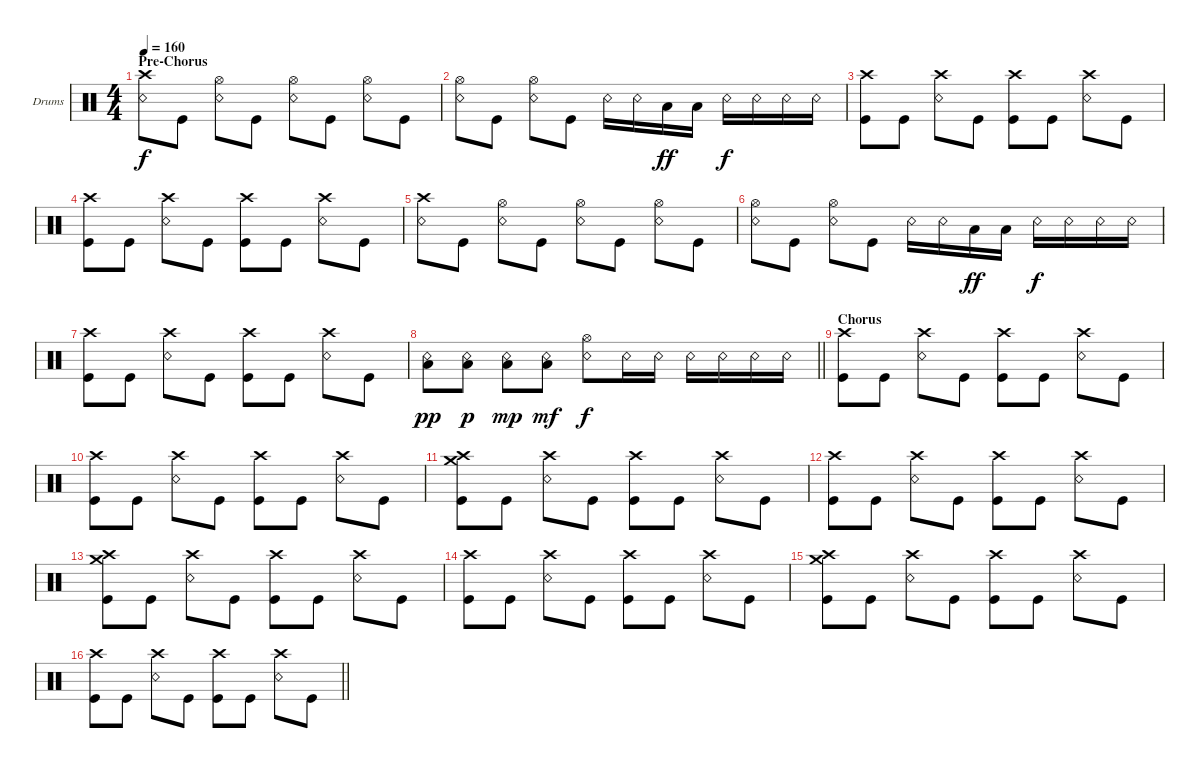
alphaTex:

\bracketExtendMode groupsimilarinstruments
\firstSystemTrackNameOrientation horizontal
\otherSystemsTrackNameOrientation horizontal
\track ("Drums" "Drums") {instrument percussion}
\staff {score}
\articulation defaults
\ts (4 4)
\section ("" "Pre-Chorus")
\tempo 160
\clef neutral
\ks c
("Snare (rim shot)" "Crash high (hit)").8{dy f} "Kick (hit)".8 ("Hi-Hat (open)" "Snare (rim shot)").8 "Kick (hit)".8 ("Hi-Hat (open)" "Snare (rim shot)").8 "Kick (hit)".8 ("Hi-Hat (open)" "Snare (rim shot)").8 "Kick (hit)".8 |
("Hi-Hat (open)" "Snare (rim shot)").8 "Kick (hit)".8 ("Hi-Hat (open)" "Snare (rim shot)").8 "Kick (hit)".8 "Snare (rim shot)".16 "Snare (rim shot)".16 "Low Tom (hit)".16{dy ff} "Low Tom (hit)".16 "Snare (rim shot)".16{dy f} "Snare (rim shot)".16 "Snare (rim shot)".16 "Snare (rim shot)".16 |
("Crash high (hit)" "Kick (hit)").8 "Kick (hit)".8 ("Crash high (hit)" "Snare (rim shot)").8 "Kick (hit)".8 ("Crash high (hit)" "Kick (hit)").8 "Kick (hit)".8 ("Crash high (hit)" "Snare (rim shot)").8 "Kick (hit)".8 |
("Crash high (hit)" "Kick (hit)").8 "Kick (hit)".8 ("Crash high (hit)" "Snare (rim shot)").8 "Kick (hit)".8 ("Crash high (hit)" "Kick (hit)").8 "Kick (hit)".8 ("Crash high (hit)" "Snare (rim shot)").8 "Kick (hit)".8 |
("Snare (rim shot)" "Crash high (hit)").8 "Kick (hit)".8 ("Hi-Hat (open)" "Snare (rim shot)").8 "Kick (hit)".8 ("Hi-Hat (open)" "Snare (rim shot)").8 "Kick (hit)".8 ("Hi-Hat (open)" "Snare (rim shot)").8 "Kick (hit)".8 |
("Hi-Hat (open)" "Snare (rim shot)").8 "Kick (hit)".8 ("Hi-Hat (open)" "Snare (rim shot)").8 "Kick (hit)".8 "Snare (rim shot)".16 "Snare (rim shot)".16 "Low Tom (hit)".16{dy ff} "Low Tom (hit)".16 "Snare (rim shot)".16{dy f} "Snare (rim shot)".16 "Snare (rim shot)".16 "Snare (rim shot)".16 |
("Crash high (hit)" "Kick (hit)").8 "Kick (hit)".8 ("Crash high (hit)" "Snare (rim shot)").8 "Kick (hit)".8 ("Crash high (hit)" "Kick (hit)").8 "Kick (hit)".8 ("Crash high (hit)" "Snare (rim shot)").8 "Kick (hit)".8 |
\barLineRight lightlight
("Snare (rim shot)" "Low Tom (hit)").8{dy pp} ("Low Tom (hit)" "Snare (rim shot)").8{dy p} ("Low Tom (hit)" "Snare (rim shot)").8{dy mp} ("Low Tom (hit)" "Snare (rim shot)").8{dy mf} ("Snare (rim shot)" "Hi-Hat (open)").8{dy f} "Snare (rim shot)".16 "Snare (rim shot)".16 "Snare (rim shot)".16 "Snare (rim shot)".16 "Snare (rim shot)".16 "Snare (rim shot)".16 |
\section ("" "Chorus")
("Kick (hit)" "Crash high (hit)").8 "Kick (hit)".8 ("Snare (rim shot)" "Crash high (hit)").8 "Kick (hit)".8 ("Kick (hit)" "Crash high (hit)").8 "Kick (hit)".8 ("Snare (rim shot)" "Crash high (hit)").8 "Kick (hit)".8 |
("Kick (hit)" "Crash high (hit)").8 "Kick (hit)".8 ("Snare (rim shot)" "Crash high (hit)").8 "Kick (hit)".8 ("Kick (hit)" "Crash high (hit)").8 "Kick (hit)".8 ("Snare (rim shot)" "Crash high (hit)").8 "Kick (hit)".8 |
("Kick (hit)" "Crash high (hit)" "Crash medium (hit)").8 "Kick (hit)".8 ("Snare (rim shot)" "Crash high (hit)").8 "Kick (hit)".8 ("Kick (hit)" "Crash high (hit)").8 "Kick (hit)".8 ("Snare (rim shot)" "Crash high (hit)").8 "Kick (hit)".8 |
("Kick (hit)" "Crash high (hit)").8 "Kick (hit)".8 ("Snare (rim shot)" "Crash high (hit)").8 "Kick (hit)".8 ("Kick (hit)" "Crash high (hit)").8 "Kick (hit)".8 ("Snare (rim shot)" "Crash high (hit)").8 "Kick (hit)".8 |
("Kick (hit)" "Crash high (hit)" "Crash medium (hit)").8 "Kick (hit)".8 ("Snare (rim shot)" "Crash high (hit)").8 "Kick (hit)".8 ("Kick (hit)" "Crash high (hit)").8 "Kick (hit)".8 ("Snare (rim shot)" "Crash high (hit)").8 "Kick (hit)".8 |
("Kick (hit)" "Crash high (hit)").8 "Kick (hit)".8 ("Snare (rim shot)" "Crash high (hit)").8 "Kick (hit)".8 ("Kick (hit)" "Crash high (hit)").8 "Kick (hit)".8 ("Snare (rim shot)" "Crash high (hit)").8 "Kick (hit)".8 |
("Kick (hit)" "Crash high (hit)" "Crash medium (hit)").8 "Kick (hit)".8 ("Snare (rim shot)" "Crash high (hit)").8 "Kick (hit)".8 ("Kick (hit)" "Crash high (hit)").8 "Kick (hit)".8 ("Snare (rim shot)" "Crash high (hit)").8 "Kick (hit)".8 |
\barLineRight lightlight
("Kick (hit)" "Crash high (hit)").8 "Kick (hit)".8 ("Snare (rim shot)" "Crash high (hit)").8 "Kick (hit)".8 ("Kick (hit)" "Crash high (hit)").8 "Kick (hit)".8 ("Snare (rim shot)" "Crash high (hit)").8 "Kick (hit)".8
